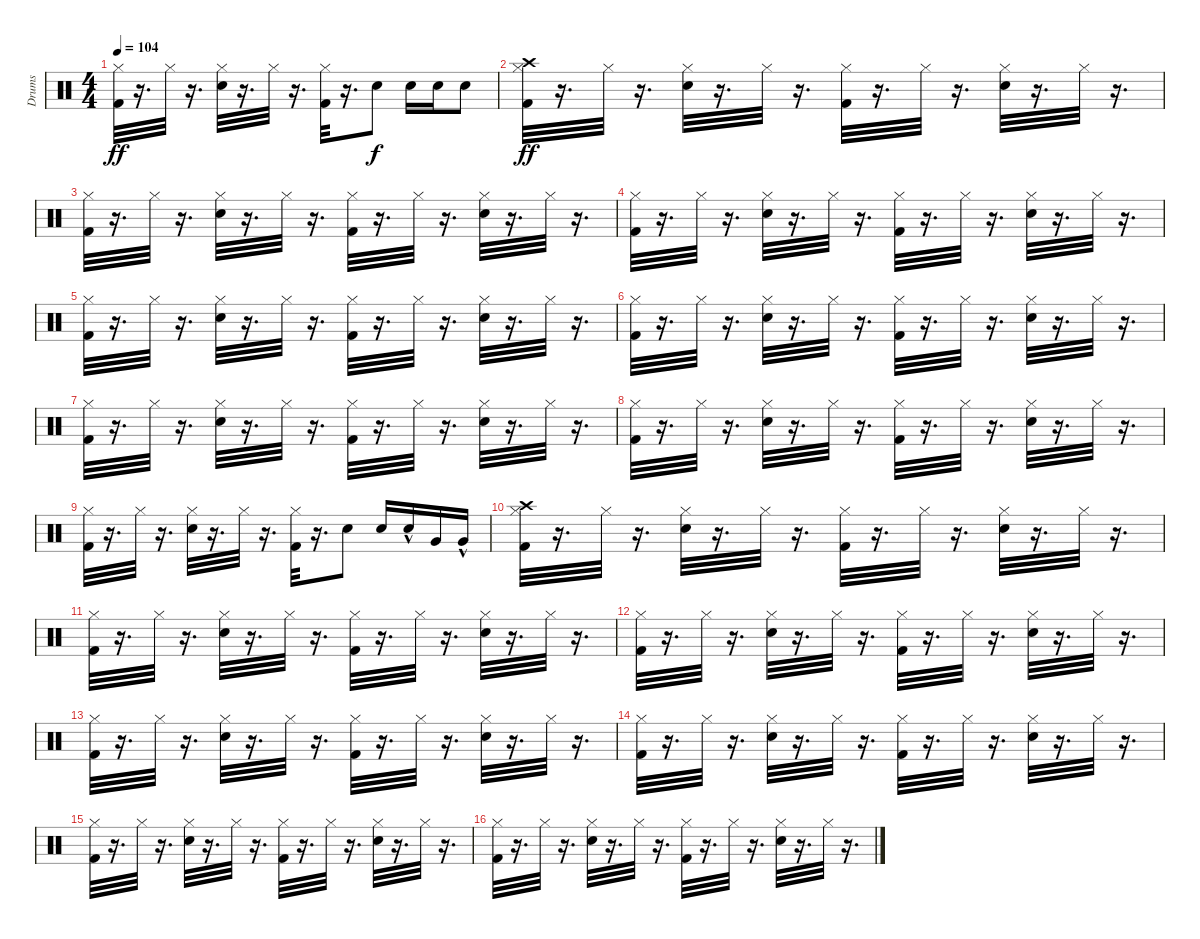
\track ("Drums" "Drums") {instrument percussion}
\staff {score}
\articulation defaults
\ts (4 4)
\tempo 104
\clef neutral
\ks c
("Kick (hit) 2" "Hi-Hat (closed)").32{dy ff volume 12 balance 8} r.16{d} "Hi-Hat (closed)".32 r.16{d} ("Snare (hit) 2" "Hi-Hat (closed)").32 r.16{d} "Hi-Hat (closed)".32 r.16{d} ("Kick (hit) 2" "Hi-Hat (closed)").32 r.16{d} "Snare (hit) 2".8{dy f} "Snare (hit) 2".16 "Snare (hit) 2".16 "Snare (hit) 2".8 |
("Kick (hit) 2" "Hi-Hat (closed)" "Crash high (hit)").32{dy ff volume 12 balance 8} r.16{d} "Hi-Hat (closed)".32 r.16{d} ("Snare (hit) 2" "Hi-Hat (closed)").32 r.16{d} "Hi-Hat (closed)".32 r.16{d} ("Kick (hit) 2" "Hi-Hat (closed)").32 r.16{d} "Hi-Hat (closed)".32 r.16{d} ("Snare (hit) 2" "Hi-Hat (closed)").32 r.16{d} "Hi-Hat (closed)".32 r.16{d} |
("Kick (hit) 2" "Hi-Hat (closed)").32{volume 12 balance 8} r.16{d} "Hi-Hat (closed)".32 r.16{d} ("Snare (hit) 2" "Hi-Hat (closed)").32 r.16{d} "Hi-Hat (closed)".32 r.16{d} ("Kick (hit) 2" "Hi-Hat (closed)").32 r.16{d} "Hi-Hat (closed)".32 r.16{d} ("Snare (hit) 2" "Hi-Hat (closed)").32 r.16{d} "Hi-Hat (closed)".32 r.16{d} |
("Kick (hit) 2" "Hi-Hat (closed)").32{volume 12 balance 8} r.16{d} "Hi-Hat (closed)".32 r.16{d} ("Snare (hit) 2" "Hi-Hat (closed)").32 r.16{d} "Hi-Hat (closed)".32 r.16{d} ("Kick (hit) 2" "Hi-Hat (closed)").32 r.16{d} "Hi-Hat (closed)".32 r.16{d} ("Snare (hit) 2" "Hi-Hat (closed)").32 r.16{d} "Hi-Hat (closed)".32 r.16{d} |
("Kick (hit) 2" "Hi-Hat (closed)").32{volume 12 balance 8} r.16{d} "Hi-Hat (closed)".32 r.16{d} ("Snare (hit) 2" "Hi-Hat (closed)").32 r.16{d} "Hi-Hat (closed)".32 r.16{d} ("Kick (hit) 2" "Hi-Hat (closed)").32 r.16{d} "Hi-Hat (closed)".32 r.16{d} ("Snare (hit) 2" "Hi-Hat (closed)").32 r.16{d} "Hi-Hat (closed)".32 r.16{d} |
("Kick (hit) 2" "Hi-Hat (closed)").32{volume 12 balance 8} r.16{d} "Hi-Hat (closed)".32 r.16{d} ("Snare (hit) 2" "Hi-Hat (closed)").32 r.16{d} "Hi-Hat (closed)".32 r.16{d} ("Kick (hit) 2" "Hi-Hat (closed)").32 r.16{d} "Hi-Hat (closed)".32 r.16{d} ("Snare (hit) 2" "Hi-Hat (closed)").32 r.16{d} "Hi-Hat (closed)".32 r.16{d} |
("Kick (hit) 2" "Hi-Hat (closed)").32{volume 12 balance 8} r.16{d} "Hi-Hat (closed)".32 r.16{d} ("Snare (hit) 2" "Hi-Hat (closed)").32 r.16{d} "Hi-Hat (closed)".32 r.16{d} ("Kick (hit) 2" "Hi-Hat (closed)").32 r.16{d} "Hi-Hat (closed)".32 r.16{d} ("Snare (hit) 2" "Hi-Hat (closed)").32 r.16{d} "Hi-Hat (closed)".32 r.16{d} |
("Kick (hit) 2" "Hi-Hat (closed)").32{volume 12 balance 8} r.16{d} "Hi-Hat (closed)".32 r.16{d} ("Snare (hit) 2" "Hi-Hat (closed)").32 r.16{d} "Hi-Hat (closed)".32 r.16{d} ("Kick (hit) 2" "Hi-Hat (closed)").32 r.16{d} "Hi-Hat (closed)".32 r.16{d} ("Snare (hit) 2" "Hi-Hat (closed)").32 r.16{d} "Hi-Hat (closed)".32 r.16{d} |
("Kick (hit) 2" "Hi-Hat (closed)").32{volume 12 balance 8} r.16{d} "Hi-Hat (closed)".32 r.16{d} ("Snare (hit) 2" "Hi-Hat (closed)").32 r.16{d} "Hi-Hat (closed)".32 r.16{d} ("Kick (hit) 2" "Hi-Hat (closed)").32 r.16{d} "Snare (hit) 2".8 "Snare (hit) 2".16 "Snare (hit) 2"{hac}.16 "Very Low Tom (hit)".16 "Very Low Tom (hit)"{hac}.16 |
("Kick (hit) 2" "Hi-Hat (closed)" "Crash high (hit)").32{volume 14 balance 8} r.16{d} "Hi-Hat (closed)".32 r.16{d} ("Snare (hit) 2" "Hi-Hat (closed)").32 r.16{d} "Hi-Hat (closed)".32 r.16{d} ("Kick (hit) 2" "Hi-Hat (closed)").32 r.16{d} "Hi-Hat (closed)".32 r.16{d} ("Snare (hit) 2" "Hi-Hat (closed)").32 r.16{d} "Hi-Hat (closed)".32 r.16{d} |
("Kick (hit) 2" "Hi-Hat (closed)").32{volume 14 balance 8} r.16{d} "Hi-Hat (closed)".32 r.16{d} ("Snare (hit) 2" "Hi-Hat (closed)").32 r.16{d} "Hi-Hat (closed)".32 r.16{d} ("Kick (hit) 2" "Hi-Hat (closed)").32 r.16{d} "Hi-Hat (closed)".32 r.16{d} ("Snare (hit) 2" "Hi-Hat (closed)").32 r.16{d} "Hi-Hat (closed)".32 r.16{d} |
("Kick (hit) 2" "Hi-Hat (closed)").32{volume 13 balance 8} r.16{d} "Hi-Hat (closed)".32 r.16{d} ("Snare (hit) 2" "Hi-Hat (closed)").32 r.16{d} "Hi-Hat (closed)".32 r.16{d} ("Kick (hit) 2" "Hi-Hat (closed)").32 r.16{d} "Hi-Hat (closed)".32 r.16{d} ("Snare (hit) 2" "Hi-Hat (closed)").32 r.16{d} "Hi-Hat (closed)".32 r.16{d} |
("Kick (hit) 2" "Hi-Hat (closed)").32{volume 13 balance 8} r.16{d} "Hi-Hat (closed)".32{volume 13} r.16{d} ("Snare (hit) 2" "Hi-Hat (closed)").32{volume 13} r.16{d} "Hi-Hat (closed)".32{volume 13} r.16{d} ("Kick (hit) 2" "Hi-Hat (closed)").32{volume 13} r.16{d} "Hi-Hat (closed)".32{volume 13} r.16{d} ("Snare (hit) 2" "Hi-Hat (closed)").32{volume 13} r.16{d} "Hi-Hat (closed)".32{volume 13} r.16{d} |
("Kick (hit) 2" "Hi-Hat (closed)").32{volume 12 balance 8} r.16{d} "Hi-Hat (closed)".32 r.16{d} ("Snare (hit) 2" "Hi-Hat (closed)").32 r.16{d} "Hi-Hat (closed)".32 r.16{d} ("Kick (hit) 2" "Hi-Hat (closed)").32 r.16{d} "Hi-Hat (closed)".32 r.16{d} ("Snare (hit) 2" "Hi-Hat (closed)").32 r.16{d} "Hi-Hat (closed)".32 r.16{d} |
("Kick (hit) 2" "Hi-Hat (closed)").32{volume 12 balance 8} r.16{d} "Hi-Hat (closed)".32 r.16{d} ("Snare (hit) 2" "Hi-Hat (closed)").32 r.16{d} "Hi-Hat (closed)".32 r.16{d} ("Kick (hit) 2" "Hi-Hat (closed)").32 r.16{d} "Hi-Hat (closed)".32 r.16{d} ("Snare (hit) 2" "Hi-Hat (closed)").32 r.16{d} "Hi-Hat (closed)".32 r.16{d} |
("Kick (hit) 2" "Hi-Hat (closed)").32{volume 11 balance 8} r.16{d} "Hi-Hat (closed)".32 r.16{d} ("Snare (hit) 2" "Hi-Hat (closed)").32 r.16{d} "Hi-Hat (closed)".32 r.16{d} ("Kick (hit) 2" "Hi-Hat (closed)").32 r.16{d} "Hi-Hat (closed)".32 r.16{d} ("Snare (hit) 2" "Hi-Hat (closed)").32 r.16{d} "Hi-Hat (closed)".32 r.16{d}
